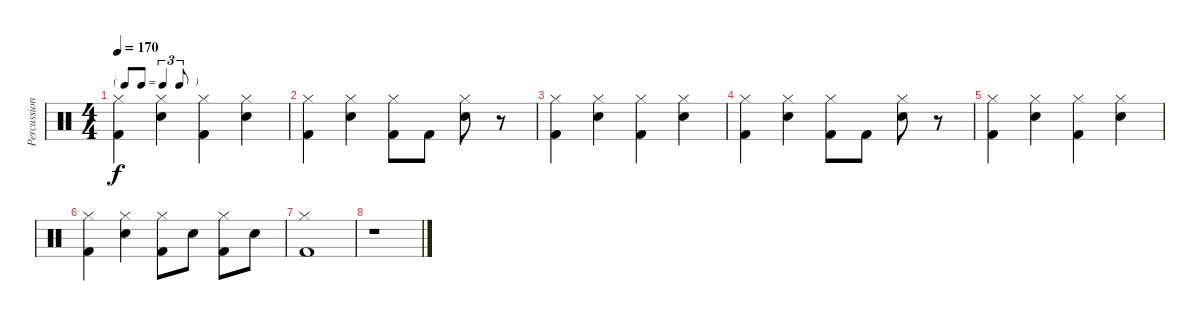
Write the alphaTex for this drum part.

\track ("Percussion" "Percussion") {instrument percussion}
\staff {score}
\articulation defaults
\ts (4 4)
\tf triplet8th
\tempo 170
\clef neutral
\ks c
("Hi-Hat (closed)" "Kick (hit) 2").4{dy f} ("Hi-Hat (closed)" "Electric Snare (hit)").4 ("Hi-Hat (closed)" "Kick (hit) 2").4 ("Hi-Hat (closed)" "Electric Snare (hit)").4 |
("Hi-Hat (closed)" "Kick (hit) 2").4 ("Hi-Hat (closed)" "Electric Snare (hit)").4 ("Hi-Hat (closed)" "Kick (hit) 2").8 "Kick (hit) 2".8 ("Hi-Hat (closed)" "Electric Snare (hit)").8 r.8 |
("Hi-Hat (closed)" "Kick (hit) 2").4 ("Hi-Hat (closed)" "Electric Snare (hit)").4 ("Hi-Hat (closed)" "Kick (hit) 2").4 ("Hi-Hat (closed)" "Electric Snare (hit)").4 |
("Hi-Hat (closed)" "Kick (hit) 2").4 ("Hi-Hat (closed)" "Electric Snare (hit)").4 ("Hi-Hat (closed)" "Kick (hit) 2").8 "Kick (hit) 2".8 ("Hi-Hat (closed)" "Electric Snare (hit)").8 r.8 |
("Hi-Hat (closed)" "Kick (hit) 2").4 ("Hi-Hat (closed)" "Electric Snare (hit)").4 ("Hi-Hat (closed)" "Kick (hit) 2").4 ("Hi-Hat (closed)" "Electric Snare (hit)").4 |
("Hi-Hat (closed)" "Kick (hit) 2").4 ("Hi-Hat (closed)" "Electric Snare (hit)").4 ("Hi-Hat (closed)" "Kick (hit) 2").8 "Electric Snare (hit)".8 ("Hi-Hat (closed)" "Kick (hit) 2").8 "Electric Snare (hit)".8 |
("Hi-Hat (closed)" "Kick (hit) 2").1 |
r.1
